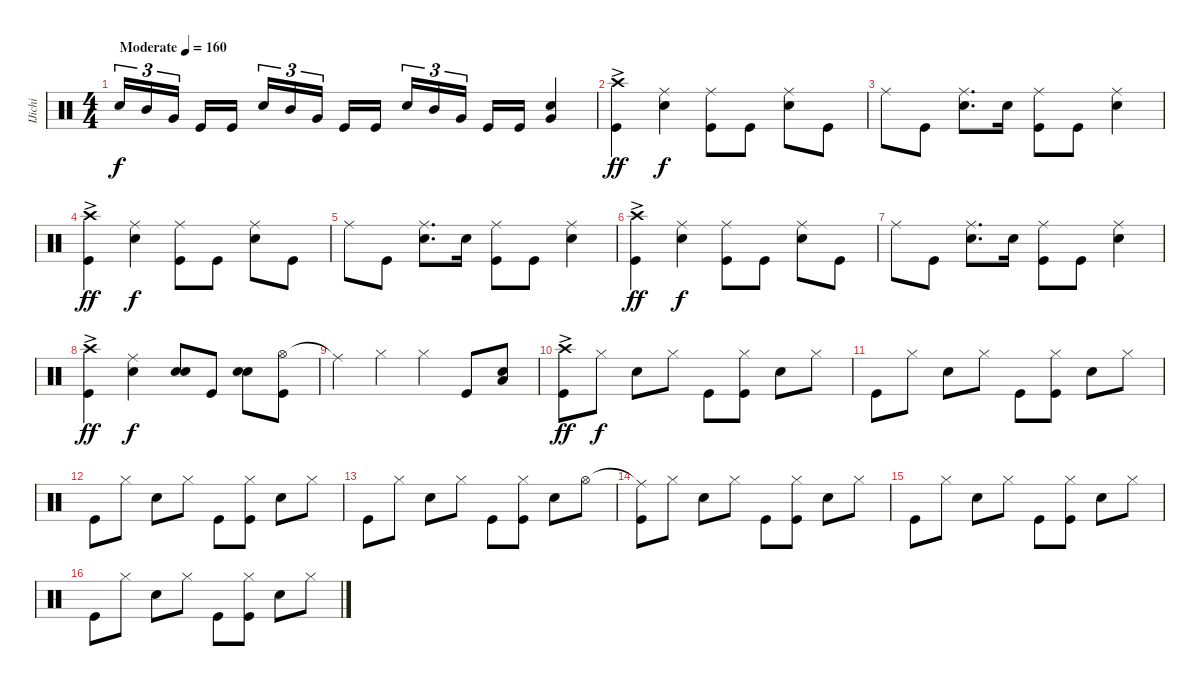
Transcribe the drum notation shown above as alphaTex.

\track ("IJichi" "IJichi") {instrument percussion}
\staff {score}
\articulation defaults
\ts (4 4)
\tempo (160 "Moderate")
\clef neutral
\ks c "Snare (hit) 2".16{tu (3 2) dy f} "Mid Tom (hit)".16{tu (3 2)} "Very Low Tom (hit)".16{tu (3 2) beam splitsecondary} "Kick (hit)".16 "Kick (hit)".16 "Snare (hit) 2".16{tu (3 2)} "Mid Tom (hit)".16{tu (3 2)} "Very Low Tom (hit)".16{tu (3 2) beam splitsecondary} "Kick (hit)".16 "Kick (hit)".16 "Snare (hit) 2".16{tu (3 2)} "Mid Tom (hit)".16{tu (3 2)} "Very Low Tom (hit)".16{tu (3 2) beam splitsecondary} "Kick (hit)".16 "Kick (hit)".16
("Snare (hit) 2" "Very Low Tom (hit)").4 |
("Crash high (hit)"{ac} "Kick (hit)").4{dy ff} ("Ride (middle)" "Snare (hit) 2").4{dy f} ("Ride (middle)" "Kick (hit)").8 "Kick (hit)".8 ("Ride (middle)" "Snare (hit) 2").8 "Kick (hit)".8 |
"Ride (middle)".8 "Kick (hit)".8 ("Ride (middle)" "Snare (hit) 2").8{d} "Snare (hit) 2".16 ("Ride (middle)" "Kick (hit)").8 "Kick (hit)".8 ("Ride (middle)" "Snare (hit) 2").4 |
("Crash high (hit)"{ac} "Kick (hit)").4{dy ff} ("Ride (middle)" "Snare (hit) 2").4{dy f} ("Ride (middle)" "Kick (hit)").8 "Kick (hit)".8 ("Ride (middle)" "Snare (hit) 2").8 "Kick (hit)".8 |
"Ride (middle)".8 "Kick (hit)".8 ("Ride (middle)" "Snare (hit) 2").8{d} "Snare (hit) 2".16 ("Ride (middle)" "Kick (hit)").8 "Kick (hit)".8 ("Ride (middle)" "Snare (hit) 2").4 |
("Crash high (hit)"{ac} "Kick (hit)").4{dy ff} ("Ride (middle)" "Snare (hit) 2").4{dy f} ("Ride (middle)" "Kick (hit)").8 "Kick (hit)".8 ("Ride (middle)" "Snare (hit) 2").8 "Kick (hit)".8 |
"Ride (middle)".8 "Kick (hit)".8 ("Ride (middle)" "Snare (hit) 2").8{d} "Snare (hit) 2".16 ("Ride (middle)" "Kick (hit)").8 "Kick (hit)".8 ("Ride (middle)" "Snare (hit) 2").4 |
("Crash high (hit)"{ac} "Kick (hit)").4{dy ff} ("Ride (middle)" "Snare (hit) 2").4{dy f} ("Snare (hit) 2" "Snare (hit) 2").8 "Kick (hit)".8 ("Snare (hit) 2" "Snare (hit) 2").8 ("Hi-Hat (open)" "Kick (hit)").8 |
"Ride (middle)"{t}.4 "Hi-Hat (closed)".4 "Hi-Hat (closed)".4 "Kick (hit)".8 ("Low Tom (hit)" "Snare (hit) 2").8 |
("Crash high (hit)"{ac} "Kick (hit)").8{dy ff} "Hi-Hat (closed)".8{dy f} "Snare (hit) 2".8 "Hi-Hat (closed)".8 "Kick (hit)".8 ("Hi-Hat (closed)" "Kick (hit)").8 "Snare (hit) 2".8 "Hi-Hat (closed)".8 |
"Kick (hit)".8 "Hi-Hat (closed)".8 "Snare (hit) 2".8 "Hi-Hat (closed)".8 "Kick (hit)".8 ("Hi-Hat (closed)" "Kick (hit)").8 "Snare (hit) 2".8 "Hi-Hat (closed)".8 |
"Kick (hit)".8 "Hi-Hat (closed)".8 "Snare (hit) 2".8 "Hi-Hat (closed)".8 "Kick (hit)".8 ("Hi-Hat (closed)" "Kick (hit)").8 "Snare (hit) 2".8 "Hi-Hat (closed)".8 |
"Kick (hit)".8 "Hi-Hat (closed)".8 "Snare (hit) 2".8 "Hi-Hat (closed)".8 "Kick (hit)".8 ("Hi-Hat (closed)" "Kick (hit)").8 "Snare (hit) 2".8 "Hi-Hat (open)".8 |
("Ride (middle)"{t} "Kick (hit)").8 "Hi-Hat (closed)".8 "Snare (hit) 2".8 "Hi-Hat (closed)".8 "Kick (hit)".8 ("Hi-Hat (closed)" "Kick (hit)").8 "Snare (hit) 2".8 "Hi-Hat (closed)".8 |
"Kick (hit)".8 "Hi-Hat (closed)".8 "Snare (hit) 2".8 "Hi-Hat (closed)".8 "Kick (hit)".8 ("Hi-Hat (closed)" "Kick (hit)").8 "Snare (hit) 2".8 "Hi-Hat (closed)".8 |
"Kick (hit)".8 "Hi-Hat (closed)".8 "Snare (hit) 2".8 "Hi-Hat (closed)".8 "Kick (hit)".8 ("Hi-Hat (closed)" "Kick (hit)").8 "Snare (hit) 2".8 "Hi-Hat (closed)".8
